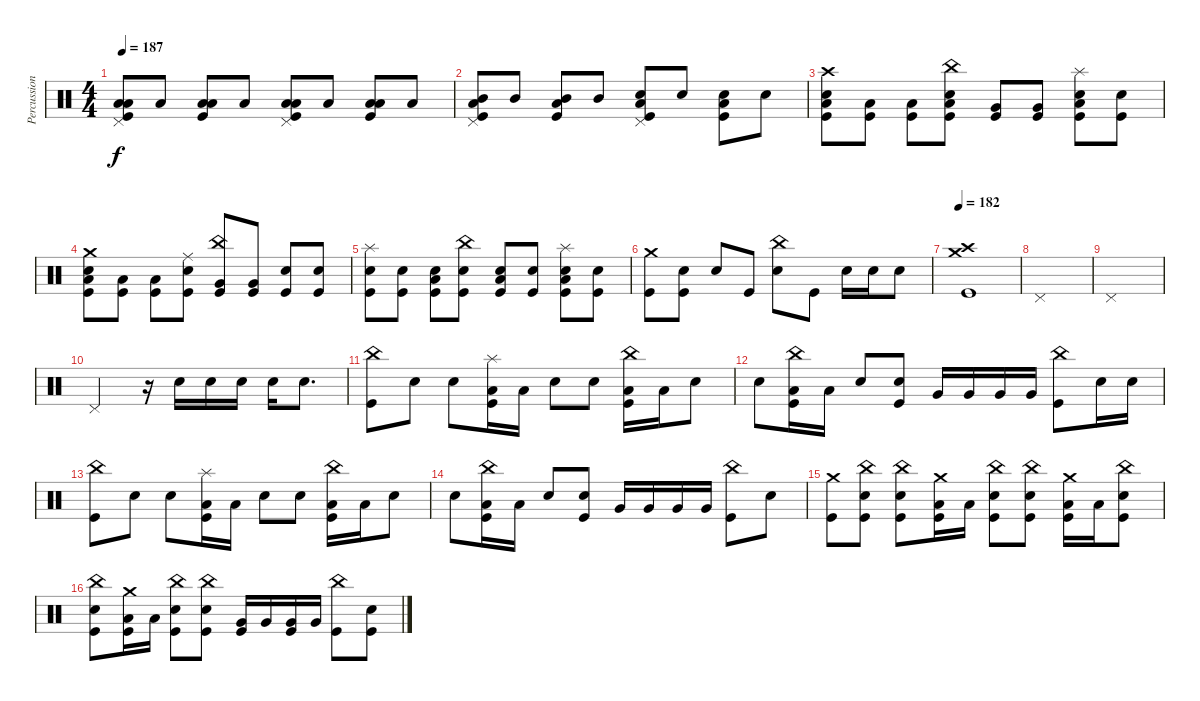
\track ("Percussion" "Percussion") {instrument percussion}
\staff {score}
\articulation defaults
\ts (4 4)
\tempo 187
\clef neutral
\ks c
("Pedal Hi-Hat (hit)" "Low Tom (hit)" "Low Floor Tom (hit)" "Kick (hit)").8{dy f} "Low Tom (hit)".8 ("Low Tom (hit)" "Low Floor Tom (hit)" "Kick (hit)").8 "Low Tom (hit)".8 ("Pedal Hi-Hat (hit)" "Low Tom (hit)" "Low Floor Tom (hit)" "Kick (hit)").8 "Low Tom (hit)".8 ("Low Tom (hit)" "Low Floor Tom (hit)" "Kick (hit)").8 "Low Tom (hit)".8 |
("Pedal Hi-Hat (hit)" "Mid Tom (hit)" "Low Floor Tom (hit)" "Kick (hit)").8 "Mid Tom (hit)".8 ("Mid Tom (hit)" "Low Floor Tom (hit)" "Kick (hit)").8 "Mid Tom (hit)".8 ("Pedal Hi-Hat (hit)" "Snare (hit) 2" "Low Floor Tom (hit)" "Kick (hit)").8 "Snare (hit) 2".8 ("Snare (hit) 2" "Low Floor Tom (hit)" "Kick (hit)").8 "Snare (hit) 2".8 |
("Crash high (hit)" "Snare (hit) 2" "Low Floor Tom (hit)" "Kick (hit)").8 ("Low Tom (hit)" "Kick (hit)").8 ("Low Tom (hit)" "Kick (hit)").8 ("China (hit)" "Snare (hit) 2" "Low Floor Tom (hit)" "Kick (hit)").8 ("Very Low Tom (hit)" "Kick (hit)").8 ("Very Low Tom (hit)" "Kick (hit)").8 ("Splash (hit)" "Snare (hit) 2" "Low Floor Tom (hit)" "Kick (hit)").8 ("Snare (hit) 2" "Kick (hit)").8 |
("Crash medium (hit)" "Snare (hit) 2" "Low Floor Tom (hit)" "Kick (hit)").8 ("Low Tom (hit)" "Kick (hit)").8 ("Low Tom (hit)" "Kick (hit)").8 ("Snare (hit) 2" "Ride (middle)" "Kick (hit)").8 ("China (hit)" "Very Low Tom (hit)" "Kick (hit)").8 ("Very Low Tom (hit)" "Kick (hit)").8 ("Snare (hit) 2" "Kick (hit)").8 ("Snare (hit) 2" "Kick (hit)").8 |
("Splash (hit)" "Snare (hit) 2" "Kick (hit)").8 ("Snare (hit) 2" "Kick (hit)").8 ("Snare (hit) 2" "Low Floor Tom (hit)" "Kick (hit)").8 ("China (hit)" "Snare (hit) 2" "Kick (hit)").8 ("Snare (hit) 2" "Low Floor Tom (hit)" "Kick (hit)").8 ("Snare (hit) 2" "Kick (hit)").8 ("Splash (hit)" "Snare (hit) 2" "Low Floor Tom (hit)" "Kick (hit)").8 ("Snare (hit) 2" "Kick (hit)").8 |
("Crash medium (hit)" "Kick (hit)").8 ("Snare (hit) 2" "Kick (hit)").8 "Snare (hit) 2".8 "Kick (hit)".8 ("China (hit)" "Snare (hit) 2").8 "Kick (hit)".8 "Snare (hit) 2".16 "Snare (hit) 2".16 "Snare (hit) 2".8 |
\tempo 182
("Crash medium (hit)" "Crash high (hit)" "Kick (hit)").1 |
"Pedal Hi-Hat (hit)".1 |
"Pedal Hi-Hat (hit)".1 |
"Pedal Hi-Hat (hit)".2 r.16 "Snare (hit) 2".16 "Snare (hit) 2".16 "Snare (hit) 2".16 "Snare (hit) 2".16 "Snare (hit) 2".8{d} |
("China (hit)" "Kick (hit)").8 "Snare (hit) 2".8 "Snare (hit) 2".8 ("Splash (hit)" "Low Floor Tom (hit)" "Kick (hit)").16 "Low Floor Tom (hit)".16 "Snare (hit) 2".8 "Snare (hit) 2".8 ("China (hit)" "Low Floor Tom (hit)" "Kick (hit)").16 "Low Floor Tom (hit)".16 "Snare (hit) 2".8 |
"Snare (hit) 2".8 ("China (hit)" "Low Floor Tom (hit)" "Kick (hit)").16 "Low Floor Tom (hit)".16 "Snare (hit) 2".8 ("Snare (hit) 2" "Kick (hit)").8 "Very Low Tom (hit)".16 "Very Low Tom (hit)".16 "Very Low Tom (hit)".16 "Very Low Tom (hit)".16 ("China (hit)" "Kick (hit)").8 "Snare (hit) 2".16 "Snare (hit) 2".16 |
("China (hit)" "Kick (hit)").8 "Snare (hit) 2".8 "Snare (hit) 2".8 ("Splash (hit)" "Low Floor Tom (hit)" "Kick (hit)").16 "Low Floor Tom (hit)".16 "Snare (hit) 2".8 "Snare (hit) 2".8 ("China (hit)" "Low Floor Tom (hit)" "Kick (hit)").16 "Low Floor Tom (hit)".16 "Snare (hit) 2".8 |
"Snare (hit) 2".8 ("China (hit)" "Low Floor Tom (hit)" "Kick (hit)").16 "Low Floor Tom (hit)".16 "Snare (hit) 2".8 ("Snare (hit) 2" "Kick (hit)").8 "Very Low Tom (hit)".16 "Very Low Tom (hit)".16 "Very Low Tom (hit)".16 "Very Low Tom (hit)".16 ("China (hit)" "Kick (hit)").8 "Snare (hit) 2".8 |
("Crash medium (hit)" "Kick (hit)").8 ("China (hit)" "Snare (hit) 2" "Kick (hit)").8 ("China (hit)" "Snare (hit) 2" "Kick (hit)").8 ("Crash medium (hit)" "Low Floor Tom (hit)" "Kick (hit)").16 "Low Floor Tom (hit)".16 ("China (hit)" "Snare (hit) 2" "Kick (hit)").8 ("China (hit)" "Snare (hit) 2" "Kick (hit)").8 ("Crash medium (hit)" "Low Floor Tom (hit)" "Kick (hit)").16 "Low Floor Tom (hit)".16 ("China (hit)" "Snare (hit) 2" "Kick (hit)").8 |
("China (hit)" "Snare (hit) 2" "Kick (hit)").8 ("Crash medium (hit)" "Low Floor Tom (hit)" "Kick (hit)").16 "Low Floor Tom (hit)".16 ("China (hit)" "Snare (hit) 2" "Kick (hit)").8 ("China (hit)" "Snare (hit) 2" "Kick (hit)").8 ("Very Low Tom (hit)" "Kick (hit)").16 "Very Low Tom (hit)".16 ("Very Low Tom (hit)" "Kick (hit)").16 "Very Low Tom (hit)".16 ("China (hit)" "Kick (hit)").8 ("Snare (hit) 2" "Kick (hit)").8
